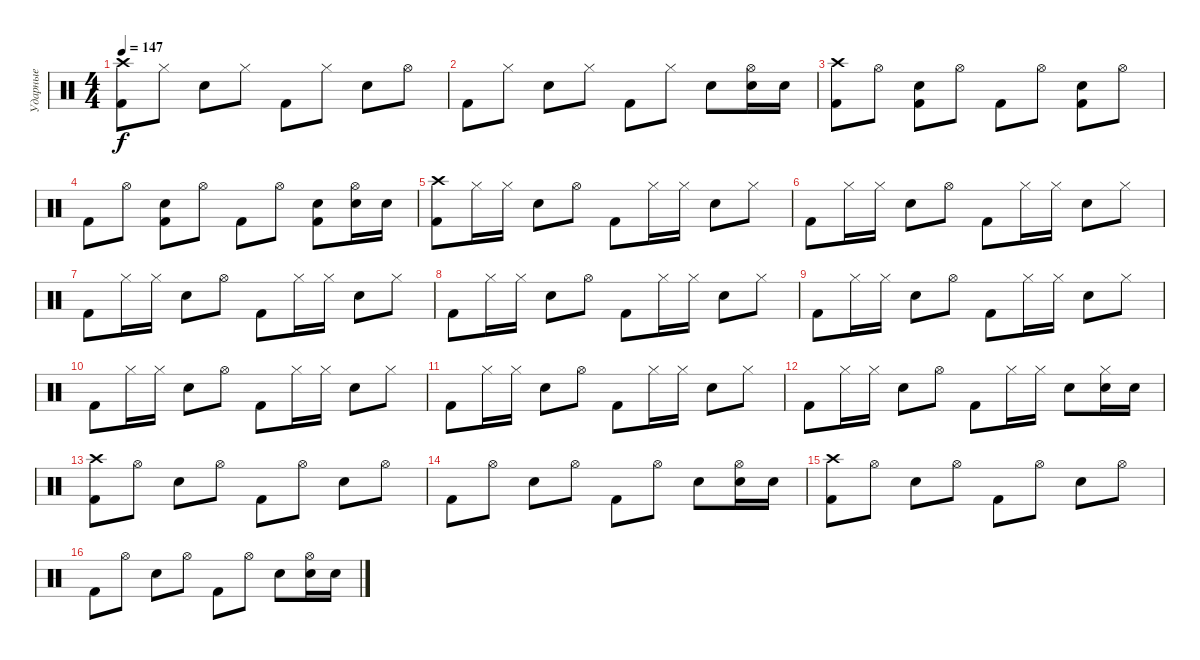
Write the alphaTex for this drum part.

\track ("Ударные" "Ударные") {instrument percussion}
\staff {score}
\articulation defaults
\ts (4 4)
\tempo 147
\clef neutral
\ks c
("Crash high (hit)" "Kick (hit) 2").8{dy f} "Hi-Hat (closed)".8 "Electric Snare (hit)".8 "Hi-Hat (closed)".8 "Kick (hit) 2".8 "Hi-Hat (closed)".8 "Electric Snare (hit)".8 "Hi-Hat (open)".8 |
"Kick (hit) 2".8 "Hi-Hat (closed)".8 "Electric Snare (hit)".8 "Hi-Hat (closed)".8 "Kick (hit) 2".8 "Hi-Hat (closed)".8 "Electric Snare (hit)".8 ("Hi-Hat (open)" "Electric Snare (hit)").16 "Electric Snare (hit)".16 |
("Crash high (hit)" "Kick (hit) 2").8 "Hi-Hat (open)".8 ("Electric Snare (hit)" "Kick (hit) 2").8 "Hi-Hat (open)".8 "Kick (hit) 2".8 "Hi-Hat (open)".8 ("Electric Snare (hit)" "Kick (hit) 2").8 "Hi-Hat (open)".8 |
"Kick (hit) 2".8 "Hi-Hat (open)".8 ("Electric Snare (hit)" "Kick (hit) 2").8 "Hi-Hat (open)".8 "Kick (hit) 2".8 "Hi-Hat (open)".8 ("Electric Snare (hit)" "Kick (hit) 2").8 ("Hi-Hat (open)" "Electric Snare (hit)").16 "Electric Snare (hit)".16 |
("Crash high (hit)" "Kick (hit) 2").8 "Hi-Hat (closed)".16 "Hi-Hat (closed)".16 "Electric Snare (hit)".8 "Hi-Hat (open)".8 "Kick (hit) 2".8 "Hi-Hat (closed)".16 "Hi-Hat (closed)".16 "Electric Snare (hit)".8 "Hi-Hat (closed)".8 |
"Kick (hit) 2".8 "Hi-Hat (closed)".16 "Hi-Hat (closed)".16 "Electric Snare (hit)".8 "Hi-Hat (open)".8 "Kick (hit) 2".8 "Hi-Hat (closed)".16 "Hi-Hat (closed)".16 "Electric Snare (hit)".8 "Hi-Hat (closed)".8 |
"Kick (hit) 2".8 "Hi-Hat (closed)".16 "Hi-Hat (closed)".16 "Electric Snare (hit)".8 "Hi-Hat (open)".8 "Kick (hit) 2".8 "Hi-Hat (closed)".16 "Hi-Hat (closed)".16 "Electric Snare (hit)".8 "Hi-Hat (closed)".8 |
"Kick (hit) 2".8 "Hi-Hat (closed)".16 "Hi-Hat (closed)".16 "Electric Snare (hit)".8 "Hi-Hat (open)".8 "Kick (hit) 2".8 "Hi-Hat (closed)".16 "Hi-Hat (closed)".16 "Electric Snare (hit)".8 "Hi-Hat (closed)".8 |
"Kick (hit) 2".8 "Hi-Hat (closed)".16 "Hi-Hat (closed)".16 "Electric Snare (hit)".8 "Hi-Hat (open)".8 "Kick (hit) 2".8 "Hi-Hat (closed)".16 "Hi-Hat (closed)".16 "Electric Snare (hit)".8 "Hi-Hat (closed)".8 |
"Kick (hit) 2".8 "Hi-Hat (closed)".16 "Hi-Hat (closed)".16 "Electric Snare (hit)".8 "Hi-Hat (open)".8 "Kick (hit) 2".8 "Hi-Hat (closed)".16 "Hi-Hat (closed)".16 "Electric Snare (hit)".8 "Hi-Hat (closed)".8 |
"Kick (hit) 2".8 "Hi-Hat (closed)".16 "Hi-Hat (closed)".16 "Electric Snare (hit)".8 "Hi-Hat (open)".8 "Kick (hit) 2".8 "Hi-Hat (closed)".16 "Hi-Hat (closed)".16 "Electric Snare (hit)".8 "Hi-Hat (closed)".8 |
"Kick (hit) 2".8 "Hi-Hat (closed)".16 "Hi-Hat (closed)".16 "Electric Snare (hit)".8 "Hi-Hat (open)".8 "Kick (hit) 2".8 "Hi-Hat (closed)".16 "Hi-Hat (closed)".16 "Electric Snare (hit)".8 ("Hi-Hat (closed)" "Electric Snare (hit)").16 "Electric Snare (hit)".16 |
("Crash high (hit)" "Kick (hit) 2").8 "Hi-Hat (open)".8 "Electric Snare (hit)".8 "Hi-Hat (open)".8 "Kick (hit) 2".8 "Hi-Hat (open)".8 "Electric Snare (hit)".8 "Hi-Hat (open)".8 |
"Kick (hit) 2".8 "Hi-Hat (open)".8 "Electric Snare (hit)".8 "Hi-Hat (open)".8 "Kick (hit) 2".8 "Hi-Hat (open)".8 "Electric Snare (hit)".8 ("Hi-Hat (open)" "Electric Snare (hit)").16 "Electric Snare (hit)".16 |
("Crash high (hit)" "Kick (hit) 2").8 "Hi-Hat (open)".8 "Electric Snare (hit)".8 "Hi-Hat (open)".8 "Kick (hit) 2".8 "Hi-Hat (open)".8 "Electric Snare (hit)".8 "Hi-Hat (open)".8 |
"Kick (hit) 2".8 "Hi-Hat (open)".8 "Electric Snare (hit)".8 "Hi-Hat (open)".8 "Kick (hit) 2".8 "Hi-Hat (open)".8 "Electric Snare (hit)".8 ("Hi-Hat (open)" "Electric Snare (hit)").16 "Electric Snare (hit)".16
